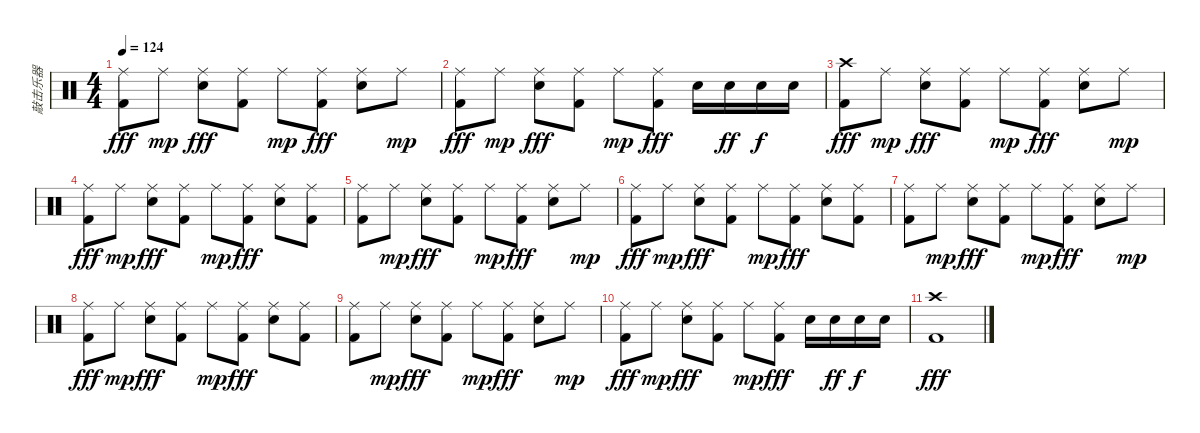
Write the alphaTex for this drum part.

\track ("敲击乐器" "敲击乐器") {instrument percussion}
\staff {score}
\articulation defaults
\ts (4 4)
\tempo 124
\clef neutral
\ks c
("Ride (middle)" "Kick (hit) 2").8{dy fff} "Ride (middle)".8{dy mp} ("Ride (middle)" "Snare (hit) 2").8{dy fff} ("Ride (middle)" "Kick (hit) 2").8 "Ride (middle)".8{dy mp} ("Ride (middle)" "Kick (hit) 2").8{dy fff} ("Ride (middle)" "Snare (hit) 2").8 "Ride (middle)".8{dy mp} |
("Ride (middle)" "Kick (hit) 2").8{dy fff} "Ride (middle)".8{dy mp} ("Ride (middle)" "Snare (hit) 2").8{dy fff} ("Ride (middle)" "Kick (hit) 2").8 "Ride (middle)".8{dy mp} ("Ride (middle)" "Kick (hit) 2").8{dy fff} "Snare (hit) 2".16 "Snare (hit) 2".16{dy ff} "Snare (hit) 2".16{dy f} "Snare (hit) 2".16 |
("Crash high (hit)" "Kick (hit) 2").8{dy fff} "Ride (middle)".8{dy mp} ("Ride (middle)" "Snare (hit) 2").8{dy fff} ("Ride (middle)" "Kick (hit) 2").8 "Ride (middle)".8{dy mp} ("Ride (middle)" "Kick (hit) 2").8{dy fff} ("Ride (middle)" "Snare (hit) 2").8 "Ride (middle)".8{dy mp} |
("Ride (middle)" "Kick (hit) 2").8{dy fff} "Ride (middle)".8{dy mp} ("Ride (middle)" "Snare (hit) 2").8{dy fff} ("Ride (middle)" "Kick (hit) 2").8 "Ride (middle)".8{dy mp} ("Ride (middle)" "Kick (hit) 2").8{dy fff} ("Ride (middle)" "Snare (hit) 2").8 ("Ride (middle)" "Kick (hit) 2").8 |
("Ride (middle)" "Kick (hit) 2").8 "Ride (middle)".8{dy mp} ("Ride (middle)" "Snare (hit) 2").8{dy fff} ("Ride (middle)" "Kick (hit) 2").8 "Ride (middle)".8{dy mp} ("Ride (middle)" "Kick (hit) 2").8{dy fff} ("Ride (middle)" "Snare (hit) 2").8 "Ride (middle)".8{dy mp} |
("Ride (middle)" "Kick (hit) 2").8{dy fff} "Ride (middle)".8{dy mp} ("Ride (middle)" "Snare (hit) 2").8{dy fff} ("Ride (middle)" "Kick (hit) 2").8 "Ride (middle)".8{dy mp} ("Ride (middle)" "Kick (hit) 2").8{dy fff} ("Ride (middle)" "Snare (hit) 2").8 ("Ride (middle)" "Kick (hit) 2").8 |
("Ride (middle)" "Kick (hit) 2").8 "Ride (middle)".8{dy mp} ("Ride (middle)" "Snare (hit) 2").8{dy fff} ("Ride (middle)" "Kick (hit) 2").8 "Ride (middle)".8{dy mp} ("Ride (middle)" "Kick (hit) 2").8{dy fff} ("Ride (middle)" "Snare (hit) 2").8 "Ride (middle)".8{dy mp} |
("Ride (middle)" "Kick (hit) 2").8{dy fff} "Ride (middle)".8{dy mp} ("Ride (middle)" "Snare (hit) 2").8{dy fff} ("Ride (middle)" "Kick (hit) 2").8 "Ride (middle)".8{dy mp} ("Ride (middle)" "Kick (hit) 2").8{dy fff} ("Ride (middle)" "Snare (hit) 2").8 ("Ride (middle)" "Kick (hit) 2").8 |
("Ride (middle)" "Kick (hit) 2").8 "Ride (middle)".8{dy mp} ("Ride (middle)" "Snare (hit) 2").8{dy fff} ("Ride (middle)" "Kick (hit) 2").8 "Ride (middle)".8{dy mp} ("Ride (middle)" "Kick (hit) 2").8{dy fff} ("Ride (middle)" "Snare (hit) 2").8 "Ride (middle)".8{dy mp} |
("Ride (middle)" "Kick (hit) 2").8{dy fff} "Ride (middle)".8{dy mp} ("Ride (middle)" "Snare (hit) 2").8{dy fff} ("Ride (middle)" "Kick (hit) 2").8 "Ride (middle)".8{dy mp} ("Ride (middle)" "Kick (hit) 2").8{dy fff} "Snare (hit) 2".16 "Snare (hit) 2".16{dy ff} "Snare (hit) 2".16{dy f} "Snare (hit) 2".16 |
("Crash high (hit)" "Kick (hit) 2").1{dy fff}
